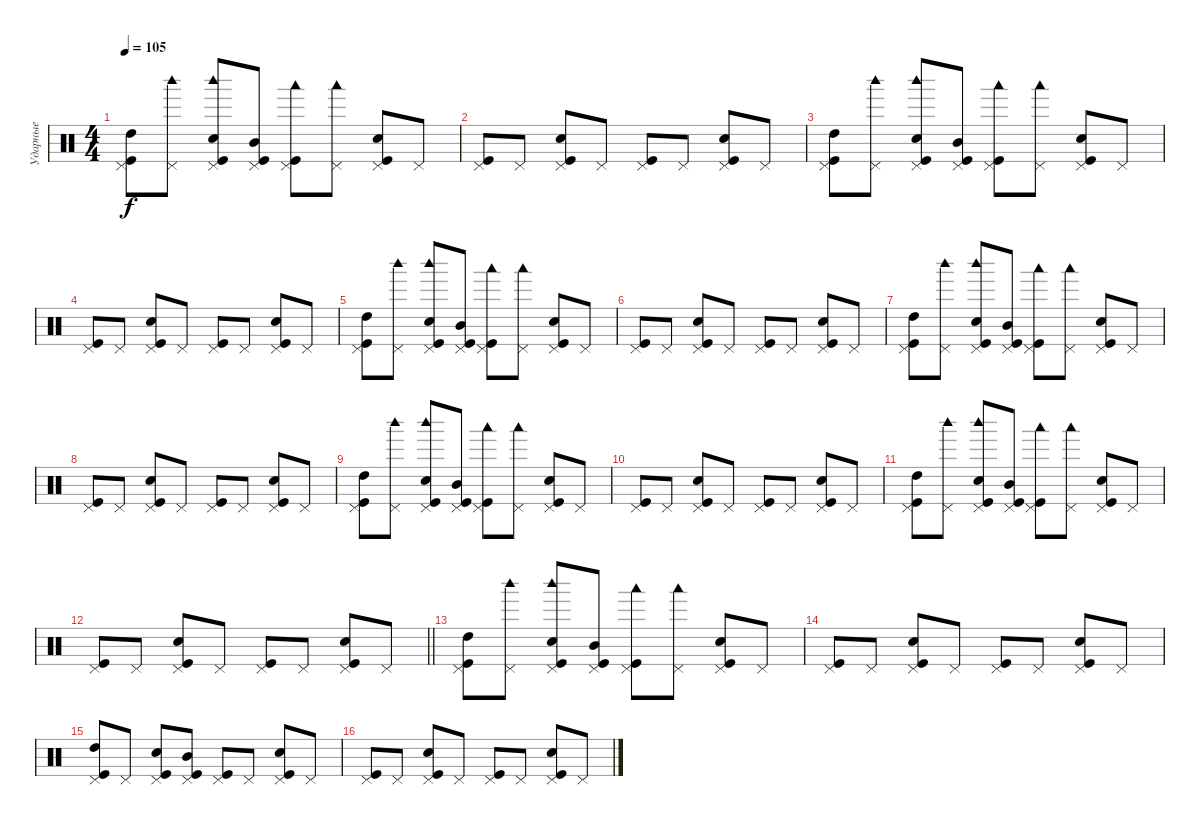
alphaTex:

\track ("Ударные" "Ударные") {instrument percussion}
\staff {score}
\articulation defaults
\ts (4 4)
\tempo 105
\clef neutral
\ks c
("Pedal Hi-Hat (hit)" "Kick (hit)" "High Tom (hit)").8{dy f} ("Pedal Hi-Hat (hit)" "Woodblock high (hit)").8 ("Pedal Hi-Hat (hit)" "Kick (hit)" "Snare (hit) 2" "Woodblock high (hit)").8 ("Pedal Hi-Hat (hit)" "Kick (hit)" "Mid Tom (hit)").8 ("Pedal Hi-Hat (hit)" "Kick (hit)" "Woodblock low (hit)").8 ("Pedal Hi-Hat (hit)" "Woodblock low (hit)").8 ("Pedal Hi-Hat (hit)" "Kick (hit)" "Snare (hit) 2").8 "Pedal Hi-Hat (hit)".8 |
("Pedal Hi-Hat (hit)" "Kick (hit)").8 "Pedal Hi-Hat (hit)".8 ("Pedal Hi-Hat (hit)" "Kick (hit)" "Snare (hit) 2").8 "Pedal Hi-Hat (hit)".8 ("Pedal Hi-Hat (hit)" "Kick (hit)").8 "Pedal Hi-Hat (hit)".8 ("Pedal Hi-Hat (hit)" "Kick (hit)" "Snare (hit) 2").8 "Pedal Hi-Hat (hit)".8 |
("Pedal Hi-Hat (hit)" "Kick (hit)" "High Tom (hit)").8 ("Pedal Hi-Hat (hit)" "Woodblock high (hit)").8 ("Pedal Hi-Hat (hit)" "Kick (hit)" "Woodblock high (hit)" "Snare (hit) 2").8 ("Pedal Hi-Hat (hit)" "Kick (hit)" "Mid Tom (hit)").8 ("Pedal Hi-Hat (hit)" "Kick (hit)" "Woodblock low (hit)").8 ("Pedal Hi-Hat (hit)" "Woodblock low (hit)").8 ("Pedal Hi-Hat (hit)" "Kick (hit)" "Snare (hit) 2").8 "Pedal Hi-Hat (hit)".8 |
("Pedal Hi-Hat (hit)" "Kick (hit)").8 "Pedal Hi-Hat (hit)".8 ("Pedal Hi-Hat (hit)" "Kick (hit)" "Snare (hit) 2").8 "Pedal Hi-Hat (hit)".8 ("Pedal Hi-Hat (hit)" "Kick (hit)").8 "Pedal Hi-Hat (hit)".8 ("Pedal Hi-Hat (hit)" "Kick (hit)" "Snare (hit) 2").8 "Pedal Hi-Hat (hit)".8 |
("Pedal Hi-Hat (hit)" "Kick (hit)" "High Tom (hit)").8 ("Pedal Hi-Hat (hit)" "Woodblock high (hit)").8 ("Pedal Hi-Hat (hit)" "Kick (hit)" "Snare (hit) 2" "Woodblock high (hit)").8 ("Pedal Hi-Hat (hit)" "Kick (hit)" "Mid Tom (hit)").8 ("Pedal Hi-Hat (hit)" "Kick (hit)" "Woodblock low (hit)").8 ("Pedal Hi-Hat (hit)" "Woodblock low (hit)").8 ("Pedal Hi-Hat (hit)" "Kick (hit)" "Snare (hit) 2").8 "Pedal Hi-Hat (hit)".8 |
("Pedal Hi-Hat (hit)" "Kick (hit)").8 "Pedal Hi-Hat (hit)".8 ("Pedal Hi-Hat (hit)" "Kick (hit)" "Snare (hit) 2").8 "Pedal Hi-Hat (hit)".8 ("Pedal Hi-Hat (hit)" "Kick (hit)").8 "Pedal Hi-Hat (hit)".8 ("Pedal Hi-Hat (hit)" "Kick (hit)" "Snare (hit) 2").8 "Pedal Hi-Hat (hit)".8 |
("Pedal Hi-Hat (hit)" "Kick (hit)" "High Tom (hit)").8 ("Pedal Hi-Hat (hit)" "Woodblock high (hit)").8 ("Pedal Hi-Hat (hit)" "Kick (hit)" "Snare (hit) 2" "Woodblock high (hit)").8 ("Pedal Hi-Hat (hit)" "Kick (hit)" "Mid Tom (hit)").8 ("Pedal Hi-Hat (hit)" "Kick (hit)" "Woodblock low (hit)").8 ("Pedal Hi-Hat (hit)" "Woodblock low (hit)").8 ("Pedal Hi-Hat (hit)" "Kick (hit)" "Snare (hit) 2").8 "Pedal Hi-Hat (hit)".8 |
("Pedal Hi-Hat (hit)" "Kick (hit)").8 "Pedal Hi-Hat (hit)".8 ("Pedal Hi-Hat (hit)" "Kick (hit)" "Snare (hit) 2").8 "Pedal Hi-Hat (hit)".8 ("Pedal Hi-Hat (hit)" "Kick (hit)").8 "Pedal Hi-Hat (hit)".8 ("Pedal Hi-Hat (hit)" "Kick (hit)" "Snare (hit) 2").8 "Pedal Hi-Hat (hit)".8 |
("Pedal Hi-Hat (hit)" "Kick (hit)" "High Tom (hit)").8 ("Pedal Hi-Hat (hit)" "Woodblock high (hit)").8 ("Pedal Hi-Hat (hit)" "Kick (hit)" "Snare (hit) 2" "Woodblock high (hit)").8 ("Pedal Hi-Hat (hit)" "Kick (hit)" "Mid Tom (hit)").8 ("Pedal Hi-Hat (hit)" "Kick (hit)" "Woodblock low (hit)").8 ("Pedal Hi-Hat (hit)" "Woodblock low (hit)").8 ("Pedal Hi-Hat (hit)" "Kick (hit)" "Snare (hit) 2").8 "Pedal Hi-Hat (hit)".8 |
("Pedal Hi-Hat (hit)" "Kick (hit)").8 "Pedal Hi-Hat (hit)".8 ("Pedal Hi-Hat (hit)" "Kick (hit)" "Snare (hit) 2").8 "Pedal Hi-Hat (hit)".8 ("Pedal Hi-Hat (hit)" "Kick (hit)").8 "Pedal Hi-Hat (hit)".8 ("Pedal Hi-Hat (hit)" "Kick (hit)" "Snare (hit) 2").8 "Pedal Hi-Hat (hit)".8 |
("Pedal Hi-Hat (hit)" "Kick (hit)" "High Tom (hit)").8 ("Pedal Hi-Hat (hit)" "Woodblock high (hit)").8 ("Pedal Hi-Hat (hit)" "Kick (hit)" "Snare (hit) 2" "Woodblock high (hit)").8 ("Pedal Hi-Hat (hit)" "Kick (hit)" "Mid Tom (hit)").8 ("Pedal Hi-Hat (hit)" "Kick (hit)" "Woodblock low (hit)").8 ("Pedal Hi-Hat (hit)" "Woodblock low (hit)").8 ("Pedal Hi-Hat (hit)" "Kick (hit)" "Snare (hit) 2").8 "Pedal Hi-Hat (hit)".8 |
\barLineRight lightlight
("Pedal Hi-Hat (hit)" "Kick (hit)").8 "Pedal Hi-Hat (hit)".8 ("Pedal Hi-Hat (hit)" "Kick (hit)" "Snare (hit) 2").8 "Pedal Hi-Hat (hit)".8 ("Pedal Hi-Hat (hit)" "Kick (hit)").8 "Pedal Hi-Hat (hit)".8 ("Pedal Hi-Hat (hit)" "Kick (hit)" "Snare (hit) 2").8 "Pedal Hi-Hat (hit)".8 |
\section ("" "")
("Pedal Hi-Hat (hit)" "Kick (hit)" "High Tom (hit)").8 ("Pedal Hi-Hat (hit)" "Woodblock high (hit)").8 ("Pedal Hi-Hat (hit)" "Kick (hit)" "Snare (hit) 2" "Woodblock high (hit)").8 ("Pedal Hi-Hat (hit)" "Kick (hit)" "Mid Tom (hit)").8 ("Pedal Hi-Hat (hit)" "Kick (hit)" "Woodblock low (hit)").8 ("Pedal Hi-Hat (hit)" "Woodblock low (hit)").8 ("Pedal Hi-Hat (hit)" "Kick (hit)" "Snare (hit) 2").8 "Pedal Hi-Hat (hit)".8 |
("Pedal Hi-Hat (hit)" "Kick (hit)").8 "Pedal Hi-Hat (hit)".8 ("Pedal Hi-Hat (hit)" "Kick (hit)" "Snare (hit) 2").8 "Pedal Hi-Hat (hit)".8 ("Pedal Hi-Hat (hit)" "Kick (hit)").8 "Pedal Hi-Hat (hit)".8 ("Pedal Hi-Hat (hit)" "Kick (hit)" "Snare (hit) 2").8 "Pedal Hi-Hat (hit)".8 |
("Pedal Hi-Hat (hit)" "Kick (hit)" "High Tom (hit)").8 "Pedal Hi-Hat (hit)".8 ("Pedal Hi-Hat (hit)" "Kick (hit)" "Snare (hit) 2").8 ("Pedal Hi-Hat (hit)" "Kick (hit)" "Mid Tom (hit)").8 ("Pedal Hi-Hat (hit)" "Kick (hit)").8 "Pedal Hi-Hat (hit)".8 ("Pedal Hi-Hat (hit)" "Kick (hit)" "Snare (hit) 2").8 "Pedal Hi-Hat (hit)".8 |
("Pedal Hi-Hat (hit)" "Kick (hit)").8 "Pedal Hi-Hat (hit)".8 ("Pedal Hi-Hat (hit)" "Kick (hit)" "Snare (hit) 2").8 "Pedal Hi-Hat (hit)".8 ("Pedal Hi-Hat (hit)" "Kick (hit)").8 "Pedal Hi-Hat (hit)".8 ("Pedal Hi-Hat (hit)" "Kick (hit)" "Snare (hit) 2").8 "Pedal Hi-Hat (hit)".8
